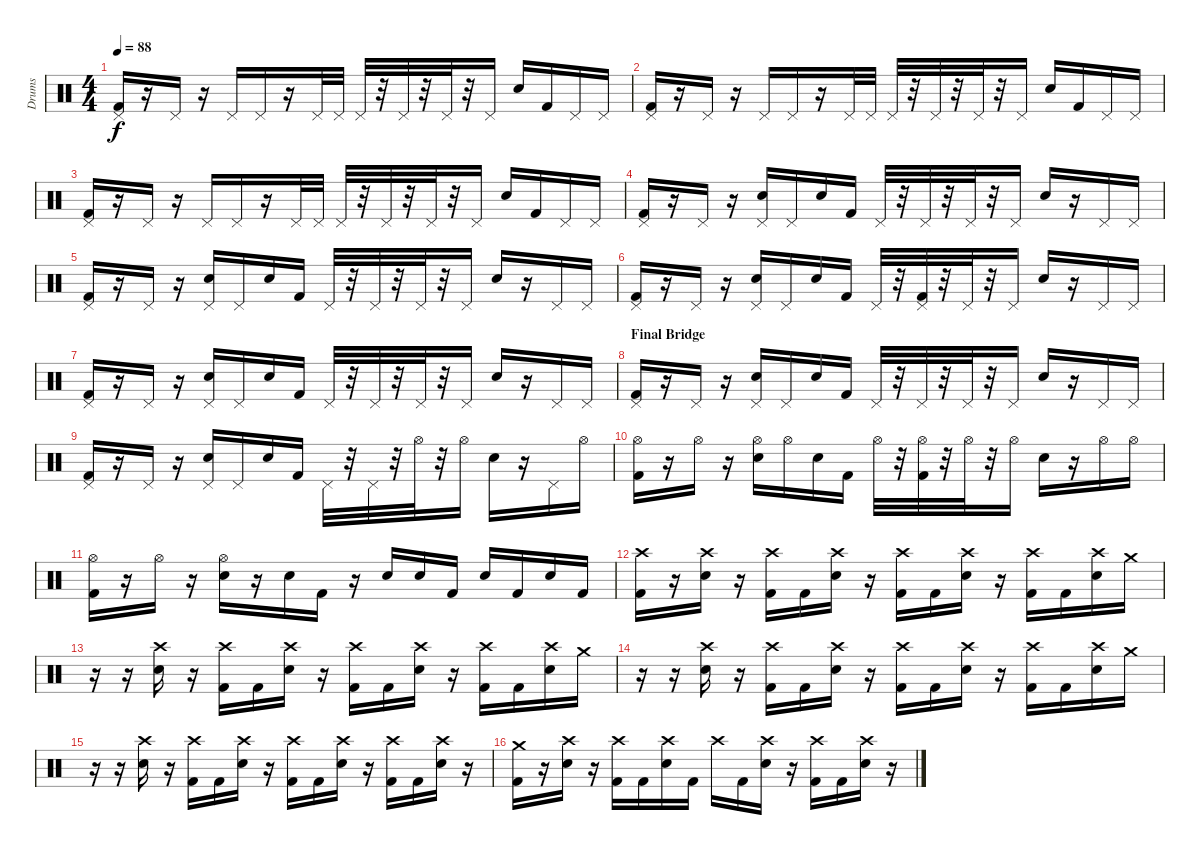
\track ("Drums" "Drums") {instrument percussion}
\staff {score}
\articulation defaults
\ts (4 4)
\tempo 88
\clef neutral
\ks c
("Pedal Hi-Hat (hit)" "Kick (hit) 2").16{dy f} r.16 "Pedal Hi-Hat (hit)".16 r.16 "Pedal Hi-Hat (hit)".16 "Pedal Hi-Hat (hit)".16 r.16 "Pedal Hi-Hat (hit)".32 "Pedal Hi-Hat (hit)".32 "Pedal Hi-Hat (hit)".32 r.32 "Pedal Hi-Hat (hit)".32 r.32 "Pedal Hi-Hat (hit)".32 r.32 "Pedal Hi-Hat (hit)".16 "Electric Snare (hit)".16 "Kick (hit) 2".16 "Pedal Hi-Hat (hit)".16 "Pedal Hi-Hat (hit)".16 |
("Pedal Hi-Hat (hit)" "Kick (hit) 2").16 r.16 "Pedal Hi-Hat (hit)".16 r.16 "Pedal Hi-Hat (hit)".16 "Pedal Hi-Hat (hit)".16 r.16 "Pedal Hi-Hat (hit)".32 "Pedal Hi-Hat (hit)".32 "Pedal Hi-Hat (hit)".32 r.32 "Pedal Hi-Hat (hit)".32 r.32 "Pedal Hi-Hat (hit)".32 r.32 "Pedal Hi-Hat (hit)".16 "Electric Snare (hit)".16 "Kick (hit) 2".16 "Pedal Hi-Hat (hit)".16 "Pedal Hi-Hat (hit)".16 |
("Pedal Hi-Hat (hit)" "Kick (hit) 2").16 r.16 "Pedal Hi-Hat (hit)".16 r.16 "Pedal Hi-Hat (hit)".16 "Pedal Hi-Hat (hit)".16 r.16 "Pedal Hi-Hat (hit)".32 "Pedal Hi-Hat (hit)".32 "Pedal Hi-Hat (hit)".32 r.32 "Pedal Hi-Hat (hit)".32 r.32 "Pedal Hi-Hat (hit)".32 r.32 "Pedal Hi-Hat (hit)".16 "Electric Snare (hit)".16 "Kick (hit) 2".16 "Pedal Hi-Hat (hit)".16 "Pedal Hi-Hat (hit)".16 |
("Pedal Hi-Hat (hit)" "Kick (hit) 2").16 r.16 "Pedal Hi-Hat (hit)".16 r.16 ("Pedal Hi-Hat (hit)" "Electric Snare (hit)").16 "Pedal Hi-Hat (hit)".16 "Electric Snare (hit)".16 "Kick (hit) 2".16 "Pedal Hi-Hat (hit)".32 r.32 "Pedal Hi-Hat (hit)".32 r.32 "Pedal Hi-Hat (hit)".32 r.32 "Pedal Hi-Hat (hit)".16 "Electric Snare (hit)".16 r.16 "Pedal Hi-Hat (hit)".16 "Pedal Hi-Hat (hit)".16 |
("Pedal Hi-Hat (hit)" "Kick (hit) 2").16 r.16 "Pedal Hi-Hat (hit)".16 r.16 ("Pedal Hi-Hat (hit)" "Electric Snare (hit)").16 "Pedal Hi-Hat (hit)".16 "Electric Snare (hit)".16 "Kick (hit) 2".16 "Pedal Hi-Hat (hit)".32 r.32 "Pedal Hi-Hat (hit)".32 r.32 "Pedal Hi-Hat (hit)".32 r.32 "Pedal Hi-Hat (hit)".16 "Electric Snare (hit)".16 r.16 "Pedal Hi-Hat (hit)".16 "Pedal Hi-Hat (hit)".16 |
("Pedal Hi-Hat (hit)" "Kick (hit) 2").16 r.16 "Pedal Hi-Hat (hit)".16 r.16 ("Pedal Hi-Hat (hit)" "Electric Snare (hit)").16 "Pedal Hi-Hat (hit)".16 "Electric Snare (hit)".16 "Kick (hit) 2".16 "Pedal Hi-Hat (hit)".32 r.32 ("Pedal Hi-Hat (hit)" "Kick (hit) 2").32 r.32 "Pedal Hi-Hat (hit)".32 r.32 "Pedal Hi-Hat (hit)".16 "Electric Snare (hit)".16 r.16 "Pedal Hi-Hat (hit)".16 "Pedal Hi-Hat (hit)".16 |
("Pedal Hi-Hat (hit)" "Kick (hit) 2").16 r.16 "Pedal Hi-Hat (hit)".16 r.16 ("Pedal Hi-Hat (hit)" "Electric Snare (hit)").16 "Pedal Hi-Hat (hit)".16 "Electric Snare (hit)".16 "Kick (hit) 2".16 "Pedal Hi-Hat (hit)".32 r.32 "Pedal Hi-Hat (hit)".32 r.32 "Pedal Hi-Hat (hit)".32 r.32 "Pedal Hi-Hat (hit)".16 "Electric Snare (hit)".16 r.16 "Pedal Hi-Hat (hit)".16 "Pedal Hi-Hat (hit)".16 |
\section ("" "Final Bridge")
("Pedal Hi-Hat (hit)" "Kick (hit) 2").16 r.16 "Pedal Hi-Hat (hit)".16 r.16 ("Pedal Hi-Hat (hit)" "Electric Snare (hit)").16 "Pedal Hi-Hat (hit)".16 "Electric Snare (hit)".16 "Kick (hit) 2".16 "Pedal Hi-Hat (hit)".32 r.32 "Pedal Hi-Hat (hit)".32 r.32 "Pedal Hi-Hat (hit)".32 r.32 "Pedal Hi-Hat (hit)".16 "Electric Snare (hit)".16 r.16 "Pedal Hi-Hat (hit)".16 "Pedal Hi-Hat (hit)".16 |
("Pedal Hi-Hat (hit)" "Kick (hit) 2").16 r.16 "Pedal Hi-Hat (hit)".16 r.16 ("Pedal Hi-Hat (hit)" "Electric Snare (hit)").16 "Pedal Hi-Hat (hit)".16 "Electric Snare (hit)".16 "Kick (hit) 2".16 "Pedal Hi-Hat (hit)".32 r.32 "Pedal Hi-Hat (hit)".32 r.32 "Hi-Hat (open)".32 r.32 "Hi-Hat (open)".16 "Electric Snare (hit)".16 r.16 "Pedal Hi-Hat (hit)".16 "Hi-Hat (open)".16 |
("Hi-Hat (open)" "Kick (hit) 2").16 r.16 "Hi-Hat (open)".16 r.16 ("Hi-Hat (open)" "Electric Snare (hit)").16 "Hi-Hat (open)".16 "Electric Snare (hit)".16 "Kick (hit) 2".16 "Hi-Hat (open)".32 r.32 ("Hi-Hat (open)" "Kick (hit) 2").32 r.32 "Hi-Hat (open)".32 r.32 "Hi-Hat (open)".16 "Electric Snare (hit)".16 r.16 "Hi-Hat (open)".16 "Hi-Hat (open)".16 |
("Hi-Hat (open)" "Kick (hit) 2").16 r.16 "Hi-Hat (open)".16 r.16 ("Hi-Hat (open)" "Electric Snare (hit)").16 r.16 "Electric Snare (hit)".16 "Kick (hit) 2".16 r.16 "Electric Snare (hit)".16 "Electric Snare (hit)".16 "Kick (hit) 2".16 "Electric Snare (hit)".16 "Kick (hit) 2".16 "Electric Snare (hit)".16 "Kick (hit) 2".16 |
("Crash high (hit)" "Kick (hit) 2").16 r.16 ("Crash high (hit)" "Electric Snare (hit)").16 r.16 ("Crash high (hit)" "Kick (hit) 2").16 "Kick (hit) 2".16 ("Crash high (hit)" "Electric Snare (hit)").16 r.16 ("Crash high (hit)" "Kick (hit) 2").16 "Kick (hit) 2".16 ("Crash high (hit)" "Electric Snare (hit)").16 r.16 ("Crash high (hit)" "Kick (hit) 2").16 "Kick (hit) 2".16 ("Crash high (hit)" "Electric Snare (hit)").16 "Crash medium (hit)".16 |
r.16 r.16 ("Crash high (hit)" "Electric Snare (hit)").16 r.16 ("Crash high (hit)" "Kick (hit) 2").16 "Kick (hit) 2".16 ("Crash high (hit)" "Electric Snare (hit)").16 r.16 ("Crash high (hit)" "Kick (hit) 2").16 "Kick (hit) 2".16 ("Crash high (hit)" "Electric Snare (hit)").16 r.16 ("Crash high (hit)" "Kick (hit) 2").16 "Kick (hit) 2".16 ("Crash high (hit)" "Electric Snare (hit)").16 "Crash medium (hit)".16 |
r.16 r.16 ("Crash high (hit)" "Electric Snare (hit)").16 r.16 ("Crash high (hit)" "Kick (hit) 2").16 "Kick (hit) 2".16 ("Crash high (hit)" "Electric Snare (hit)").16 r.16 ("Crash high (hit)" "Kick (hit) 2").16 "Kick (hit) 2".16 ("Crash high (hit)" "Electric Snare (hit)").16 r.16 ("Crash high (hit)" "Kick (hit) 2").16 "Kick (hit) 2".16 ("Crash high (hit)" "Electric Snare (hit)").16 "Crash medium (hit)".16 |
r.16 r.16 ("Crash high (hit)" "Electric Snare (hit)").16 r.16 ("Crash high (hit)" "Kick (hit) 2").16 "Kick (hit) 2".16 ("Crash high (hit)" "Electric Snare (hit)").16 r.16 ("Crash high (hit)" "Kick (hit) 2").16 "Kick (hit) 2".16 ("Crash high (hit)" "Electric Snare (hit)").16 r.16 ("Crash high (hit)" "Kick (hit) 2").16 "Kick (hit) 2".16 ("Crash high (hit)" "Electric Snare (hit)").16 r.16 |
("Crash medium (hit)" "Kick (hit) 2").16 r.16 ("Crash high (hit)" "Electric Snare (hit)").16 r.16 ("Crash high (hit)" "Kick (hit) 2").16 "Kick (hit) 2".16 ("Crash high (hit)" "Electric Snare (hit)").16 "Kick (hit) 2".16 "Crash high (hit)".16 "Kick (hit) 2".16 ("Crash high (hit)" "Electric Snare (hit)").16 r.16 ("Crash high (hit)" "Kick (hit) 2").16 "Kick (hit) 2".16 ("Crash high (hit)" "Electric Snare (hit)").16 r.16
